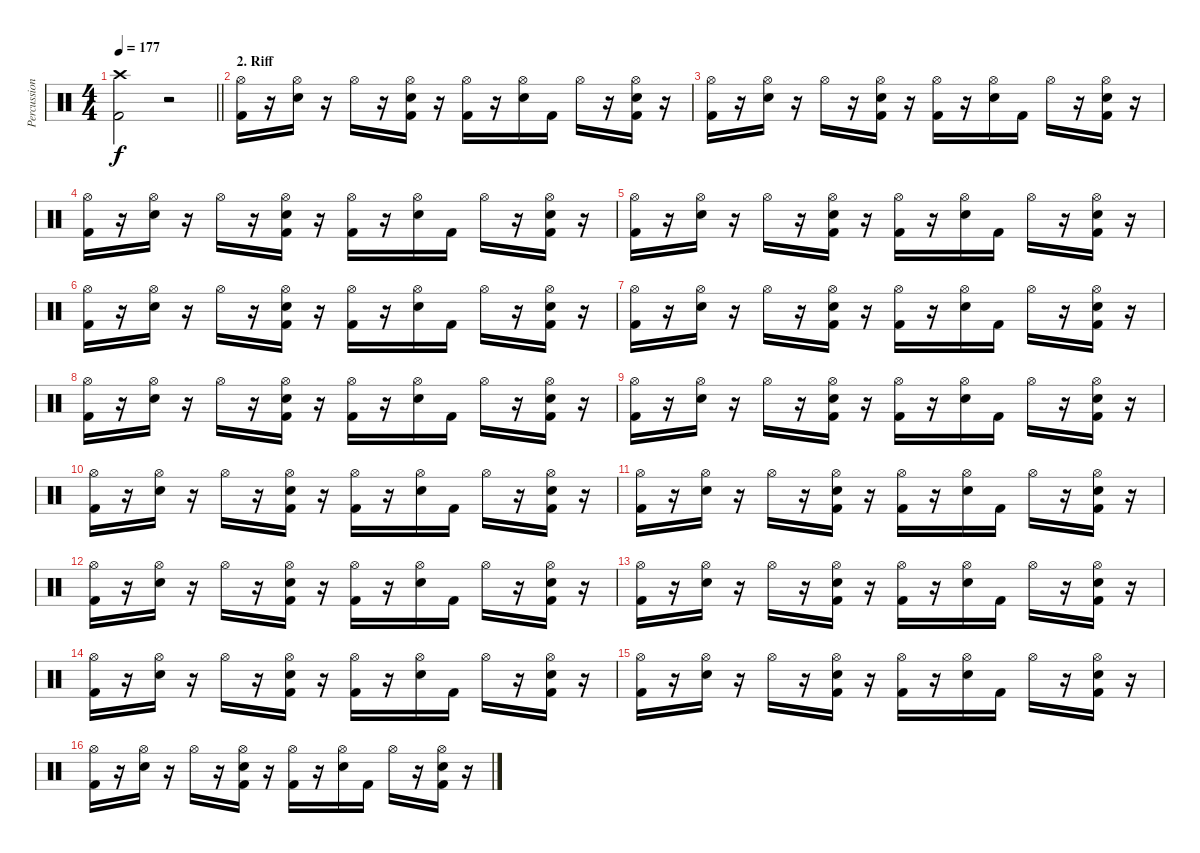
\track ("Percussion" "Percussion") {instrument percussion}
\staff {score}
\articulation defaults
\ts (4 4)
\tempo 177
\clef neutral
\barLineRight lightlight
\ks c
("Crash high (hit)" "Kick (hit) 2").2{dy f} r.2 |
\section ("" "2. Riff")
("Hi-Hat (open)" "Kick (hit) 2").16 r.16 ("Hi-Hat (open)" "Snare (hit) 2").16 r.16 "Hi-Hat (open)".16 r.16 ("Hi-Hat (open)" "Snare (hit) 2" "Kick (hit) 2").16 r.16 ("Hi-Hat (open)" "Kick (hit) 2").16 r.16 ("Hi-Hat (open)" "Snare (hit) 2").16 "Kick (hit) 2".16 "Hi-Hat (open)".16 r.16 ("Hi-Hat (open)" "Snare (hit) 2" "Kick (hit) 2").16 r.16 |
("Hi-Hat (open)" "Kick (hit) 2").16 r.16 ("Hi-Hat (open)" "Snare (hit) 2").16 r.16 "Hi-Hat (open)".16 r.16 ("Hi-Hat (open)" "Snare (hit) 2" "Kick (hit) 2").16 r.16 ("Hi-Hat (open)" "Kick (hit) 2").16 r.16 ("Hi-Hat (open)" "Snare (hit) 2").16 "Kick (hit) 2".16 "Hi-Hat (open)".16 r.16 ("Hi-Hat (open)" "Snare (hit) 2" "Kick (hit) 2").16 r.16 |
("Hi-Hat (open)" "Kick (hit) 2").16 r.16 ("Hi-Hat (open)" "Snare (hit) 2").16 r.16 "Hi-Hat (open)".16 r.16 ("Hi-Hat (open)" "Snare (hit) 2" "Kick (hit) 2").16 r.16 ("Hi-Hat (open)" "Kick (hit) 2").16 r.16 ("Hi-Hat (open)" "Snare (hit) 2").16 "Kick (hit) 2".16 "Hi-Hat (open)".16 r.16 ("Hi-Hat (open)" "Snare (hit) 2" "Kick (hit) 2").16 r.16 |
("Hi-Hat (open)" "Kick (hit) 2").16 r.16 ("Hi-Hat (open)" "Snare (hit) 2").16 r.16 "Hi-Hat (open)".16 r.16 ("Hi-Hat (open)" "Snare (hit) 2" "Kick (hit) 2").16 r.16 ("Hi-Hat (open)" "Kick (hit) 2").16 r.16 ("Hi-Hat (open)" "Snare (hit) 2").16 "Kick (hit) 2".16 "Hi-Hat (open)".16 r.16 ("Hi-Hat (open)" "Snare (hit) 2" "Kick (hit) 2").16 r.16 |
("Hi-Hat (open)" "Kick (hit) 2").16 r.16 ("Hi-Hat (open)" "Snare (hit) 2").16 r.16 "Hi-Hat (open)".16 r.16 ("Hi-Hat (open)" "Snare (hit) 2" "Kick (hit) 2").16 r.16 ("Hi-Hat (open)" "Kick (hit) 2").16 r.16 ("Hi-Hat (open)" "Snare (hit) 2").16 "Kick (hit) 2".16 "Hi-Hat (open)".16 r.16 ("Hi-Hat (open)" "Snare (hit) 2" "Kick (hit) 2").16 r.16 |
("Hi-Hat (open)" "Kick (hit) 2").16 r.16 ("Hi-Hat (open)" "Snare (hit) 2").16 r.16 "Hi-Hat (open)".16 r.16 ("Hi-Hat (open)" "Snare (hit) 2" "Kick (hit) 2").16 r.16 ("Hi-Hat (open)" "Kick (hit) 2").16 r.16 ("Hi-Hat (open)" "Snare (hit) 2").16 "Kick (hit) 2".16 "Hi-Hat (open)".16 r.16 ("Hi-Hat (open)" "Snare (hit) 2" "Kick (hit) 2").16 r.16 |
("Hi-Hat (open)" "Kick (hit) 2").16 r.16 ("Hi-Hat (open)" "Snare (hit) 2").16 r.16 "Hi-Hat (open)".16 r.16 ("Hi-Hat (open)" "Snare (hit) 2" "Kick (hit) 2").16 r.16 ("Hi-Hat (open)" "Kick (hit) 2").16 r.16 ("Hi-Hat (open)" "Snare (hit) 2").16 "Kick (hit) 2".16 "Hi-Hat (open)".16 r.16 ("Hi-Hat (open)" "Snare (hit) 2" "Kick (hit) 2").16 r.16 |
("Hi-Hat (open)" "Kick (hit) 2").16 r.16 ("Hi-Hat (open)" "Snare (hit) 2").16 r.16 "Hi-Hat (open)".16 r.16 ("Hi-Hat (open)" "Snare (hit) 2" "Kick (hit) 2").16 r.16 ("Hi-Hat (open)" "Kick (hit) 2").16 r.16 ("Hi-Hat (open)" "Snare (hit) 2").16 "Kick (hit) 2".16 "Hi-Hat (open)".16 r.16 ("Hi-Hat (open)" "Snare (hit) 2" "Kick (hit) 2").16 r.16 |
("Hi-Hat (open)" "Kick (hit) 2").16 r.16 ("Hi-Hat (open)" "Snare (hit) 2").16 r.16 "Hi-Hat (open)".16 r.16 ("Hi-Hat (open)" "Snare (hit) 2" "Kick (hit) 2").16 r.16 ("Hi-Hat (open)" "Kick (hit) 2").16 r.16 ("Hi-Hat (open)" "Snare (hit) 2").16 "Kick (hit) 2".16 "Hi-Hat (open)".16 r.16 ("Hi-Hat (open)" "Snare (hit) 2" "Kick (hit) 2").16 r.16 |
("Hi-Hat (open)" "Kick (hit) 2").16 r.16 ("Hi-Hat (open)" "Snare (hit) 2").16 r.16 "Hi-Hat (open)".16 r.16 ("Hi-Hat (open)" "Snare (hit) 2" "Kick (hit) 2").16 r.16 ("Hi-Hat (open)" "Kick (hit) 2").16 r.16 ("Hi-Hat (open)" "Snare (hit) 2").16 "Kick (hit) 2".16 "Hi-Hat (open)".16 r.16 ("Hi-Hat (open)" "Snare (hit) 2" "Kick (hit) 2").16 r.16 |
("Hi-Hat (open)" "Kick (hit) 2").16 r.16 ("Hi-Hat (open)" "Snare (hit) 2").16 r.16 "Hi-Hat (open)".16 r.16 ("Hi-Hat (open)" "Snare (hit) 2" "Kick (hit) 2").16 r.16 ("Hi-Hat (open)" "Kick (hit) 2").16 r.16 ("Hi-Hat (open)" "Snare (hit) 2").16 "Kick (hit) 2".16 "Hi-Hat (open)".16 r.16 ("Hi-Hat (open)" "Snare (hit) 2" "Kick (hit) 2").16 r.16 |
("Hi-Hat (open)" "Kick (hit) 2").16 r.16 ("Hi-Hat (open)" "Snare (hit) 2").16 r.16 "Hi-Hat (open)".16 r.16 ("Hi-Hat (open)" "Snare (hit) 2" "Kick (hit) 2").16 r.16 ("Hi-Hat (open)" "Kick (hit) 2").16 r.16 ("Hi-Hat (open)" "Snare (hit) 2").16 "Kick (hit) 2".16 "Hi-Hat (open)".16 r.16 ("Hi-Hat (open)" "Snare (hit) 2" "Kick (hit) 2").16 r.16 |
("Hi-Hat (open)" "Kick (hit) 2").16 r.16 ("Hi-Hat (open)" "Snare (hit) 2").16 r.16 "Hi-Hat (open)".16 r.16 ("Hi-Hat (open)" "Snare (hit) 2" "Kick (hit) 2").16 r.16 ("Hi-Hat (open)" "Kick (hit) 2").16 r.16 ("Hi-Hat (open)" "Snare (hit) 2").16 "Kick (hit) 2".16 "Hi-Hat (open)".16 r.16 ("Hi-Hat (open)" "Snare (hit) 2" "Kick (hit) 2").16 r.16 |
("Hi-Hat (open)" "Kick (hit) 2").16 r.16 ("Hi-Hat (open)" "Snare (hit) 2").16 r.16 "Hi-Hat (open)".16 r.16 ("Hi-Hat (open)" "Snare (hit) 2" "Kick (hit) 2").16 r.16 ("Hi-Hat (open)" "Kick (hit) 2").16 r.16 ("Hi-Hat (open)" "Snare (hit) 2").16 "Kick (hit) 2".16 "Hi-Hat (open)".16 r.16 ("Hi-Hat (open)" "Snare (hit) 2" "Kick (hit) 2").16 r.16 |
("Hi-Hat (open)" "Kick (hit) 2").16 r.16 ("Hi-Hat (open)" "Snare (hit) 2").16 r.16 "Hi-Hat (open)".16 r.16 ("Hi-Hat (open)" "Snare (hit) 2" "Kick (hit) 2").16 r.16 ("Hi-Hat (open)" "Kick (hit) 2").16 r.16 ("Hi-Hat (open)" "Snare (hit) 2").16 "Kick (hit) 2".16 "Hi-Hat (open)".16 r.16 ("Hi-Hat (open)" "Snare (hit) 2" "Kick (hit) 2").16 r.16
